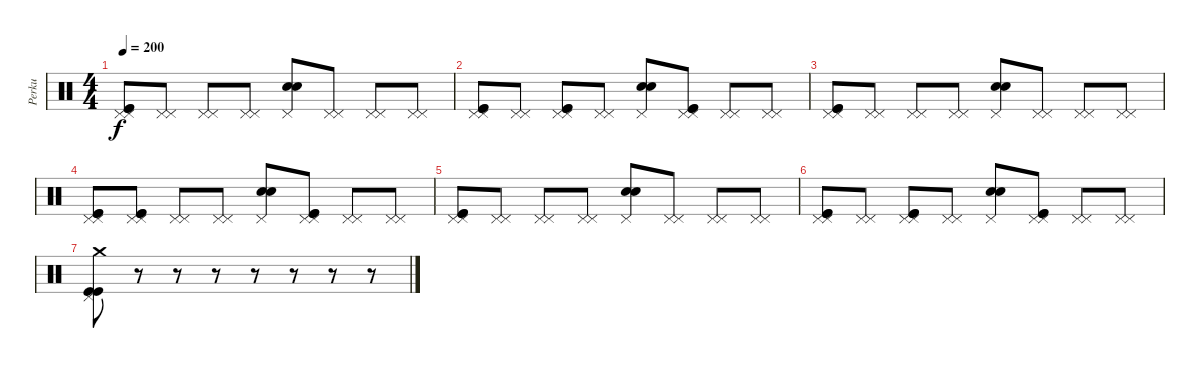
\track ("Perku" "Perku") {instrument percussion}
\staff {score}
\articulation defaults
\ts (4 4)
\tempo 200
\clef neutral
\ks c
("Pedal Hi-Hat (hit)" "Pedal Hi-Hat (hit)" "Kick (hit)" "Kick (hit)").8{dy f} ("Pedal Hi-Hat (hit)" "Pedal Hi-Hat (hit)").8 ("Pedal Hi-Hat (hit)" "Pedal Hi-Hat (hit)").8 ("Pedal Hi-Hat (hit)" "Pedal Hi-Hat (hit)").8 ("Pedal Hi-Hat (hit)" "Electric Snare (hit)" "Electric Snare (hit)").8 ("Pedal Hi-Hat (hit)" "Pedal Hi-Hat (hit)").8 ("Pedal Hi-Hat (hit)" "Pedal Hi-Hat (hit)").8 ("Pedal Hi-Hat (hit)" "Pedal Hi-Hat (hit)").8 |
("Pedal Hi-Hat (hit)" "Pedal Hi-Hat (hit)" "Kick (hit)" "Kick (hit)").8 ("Pedal Hi-Hat (hit)" "Pedal Hi-Hat (hit)").8 ("Pedal Hi-Hat (hit)" "Pedal Hi-Hat (hit)" "Kick (hit)" "Kick (hit)").8 ("Pedal Hi-Hat (hit)" "Pedal Hi-Hat (hit)").8 ("Pedal Hi-Hat (hit)" "Electric Snare (hit)" "Electric Snare (hit)").8 ("Pedal Hi-Hat (hit)" "Pedal Hi-Hat (hit)" "Kick (hit)" "Kick (hit)").8 ("Pedal Hi-Hat (hit)" "Pedal Hi-Hat (hit)").8 ("Pedal Hi-Hat (hit)" "Pedal Hi-Hat (hit)").8 |
("Pedal Hi-Hat (hit)" "Pedal Hi-Hat (hit)" "Kick (hit)" "Kick (hit)").8 ("Pedal Hi-Hat (hit)" "Pedal Hi-Hat (hit)").8 ("Pedal Hi-Hat (hit)" "Pedal Hi-Hat (hit)").8 ("Pedal Hi-Hat (hit)" "Pedal Hi-Hat (hit)").8 ("Pedal Hi-Hat (hit)" "Electric Snare (hit)" "Electric Snare (hit)").8 ("Pedal Hi-Hat (hit)" "Pedal Hi-Hat (hit)").8 ("Pedal Hi-Hat (hit)" "Pedal Hi-Hat (hit)").8 ("Pedal Hi-Hat (hit)" "Pedal Hi-Hat (hit)").8 |
("Pedal Hi-Hat (hit)" "Pedal Hi-Hat (hit)" "Kick (hit)" "Kick (hit)").8 ("Pedal Hi-Hat (hit)" "Pedal Hi-Hat (hit)" "Kick (hit)" "Kick (hit)").8 ("Pedal Hi-Hat (hit)" "Pedal Hi-Hat (hit)").8 ("Pedal Hi-Hat (hit)" "Pedal Hi-Hat (hit)").8 ("Pedal Hi-Hat (hit)" "Electric Snare (hit)" "Electric Snare (hit)").8 ("Pedal Hi-Hat (hit)" "Pedal Hi-Hat (hit)" "Kick (hit)" "Kick (hit)").8 ("Pedal Hi-Hat (hit)" "Pedal Hi-Hat (hit)").8 ("Pedal Hi-Hat (hit)" "Pedal Hi-Hat (hit)").8 |
("Pedal Hi-Hat (hit)" "Pedal Hi-Hat (hit)" "Kick (hit)" "Kick (hit)").8 ("Pedal Hi-Hat (hit)" "Pedal Hi-Hat (hit)").8 ("Pedal Hi-Hat (hit)" "Pedal Hi-Hat (hit)").8 ("Pedal Hi-Hat (hit)" "Pedal Hi-Hat (hit)").8 ("Pedal Hi-Hat (hit)" "Electric Snare (hit)" "Electric Snare (hit)").8 ("Pedal Hi-Hat (hit)" "Pedal Hi-Hat (hit)").8 ("Pedal Hi-Hat (hit)" "Pedal Hi-Hat (hit)").8 ("Pedal Hi-Hat (hit)" "Pedal Hi-Hat (hit)").8 |
("Pedal Hi-Hat (hit)" "Pedal Hi-Hat (hit)" "Kick (hit)" "Kick (hit)").8 ("Pedal Hi-Hat (hit)" "Pedal Hi-Hat (hit)").8 ("Pedal Hi-Hat (hit)" "Pedal Hi-Hat (hit)" "Kick (hit)" "Kick (hit)").8 ("Pedal Hi-Hat (hit)" "Pedal Hi-Hat (hit)").8 ("Pedal Hi-Hat (hit)" "Electric Snare (hit)" "Electric Snare (hit)").8 ("Pedal Hi-Hat (hit)" "Pedal Hi-Hat (hit)" "Kick (hit)" "Kick (hit)").8 ("Pedal Hi-Hat (hit)" "Pedal Hi-Hat (hit)").8 ("Pedal Hi-Hat (hit)" "Pedal Hi-Hat (hit)").8 |
("Crash medium (hit)" "Pedal Hi-Hat (hit)" "Kick (hit)" "Kick (hit)").8 r.8 r.8 r.8 r.8 r.8 r.8 r.8
